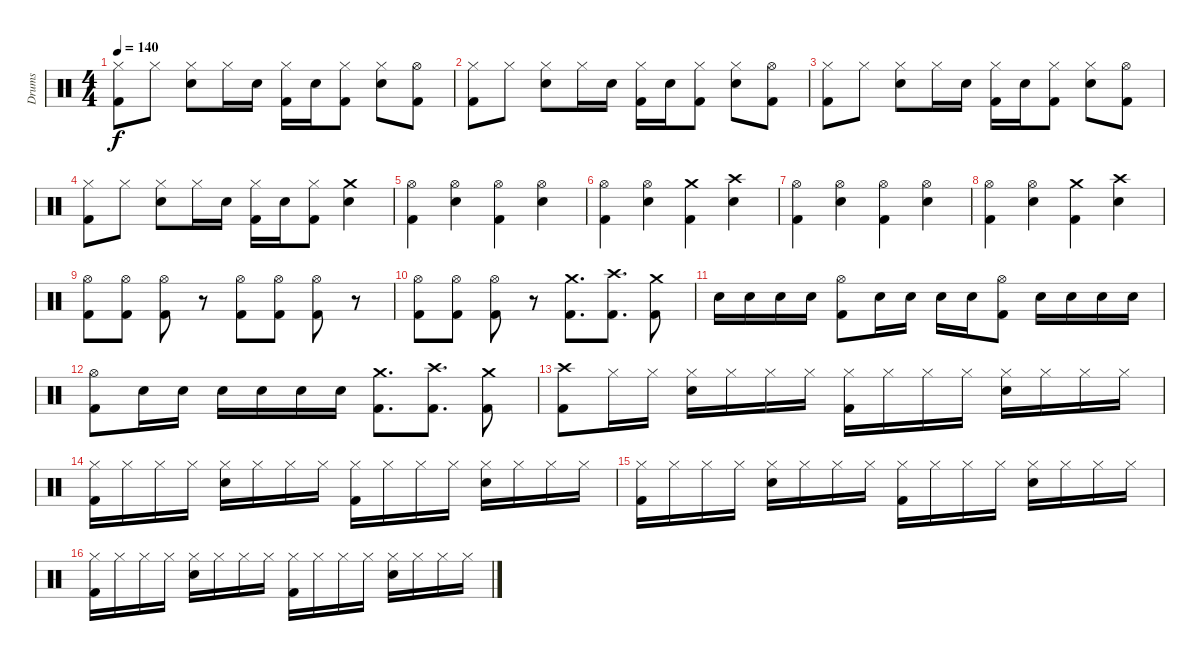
\track ("Drums" "Drums") {instrument percussion}
\staff {score}
\articulation defaults
\ts (4 4)
\tempo 140
\clef neutral
\ks c
("Hi-Hat (closed)" "Kick (hit) 2").8{dy f} "Hi-Hat (closed)".8 ("Hi-Hat (closed)" "Electric Snare (hit)").8 "Hi-Hat (closed)".16 "Electric Snare (hit)".16 ("Hi-Hat (closed)" "Kick (hit) 2").16 "Electric Snare (hit)".16 ("Hi-Hat (closed)" "Kick (hit) 2").8 ("Hi-Hat (closed)" "Electric Snare (hit)").8 ("Hi-Hat (open)" "Kick (hit) 2").8 |
("Hi-Hat (closed)" "Kick (hit) 2").8 "Hi-Hat (closed)".8 ("Hi-Hat (closed)" "Electric Snare (hit)").8 "Hi-Hat (closed)".16 "Electric Snare (hit)".16 ("Hi-Hat (closed)" "Kick (hit) 2").16 "Electric Snare (hit)".16 ("Hi-Hat (closed)" "Kick (hit) 2").8 ("Hi-Hat (closed)" "Electric Snare (hit)").8 ("Hi-Hat (open)" "Kick (hit) 2").8 |
("Hi-Hat (closed)" "Kick (hit) 2").8 "Hi-Hat (closed)".8 ("Hi-Hat (closed)" "Electric Snare (hit)").8 "Hi-Hat (closed)".16 "Electric Snare (hit)".16 ("Hi-Hat (closed)" "Kick (hit) 2").16 "Electric Snare (hit)".16 ("Hi-Hat (closed)" "Kick (hit) 2").8 ("Hi-Hat (closed)" "Electric Snare (hit)").8 ("Hi-Hat (open)" "Kick (hit) 2").8 |
("Hi-Hat (closed)" "Kick (hit) 2").8 "Hi-Hat (closed)".8 ("Hi-Hat (closed)" "Electric Snare (hit)").8 "Hi-Hat (closed)".16 "Electric Snare (hit)".16 ("Hi-Hat (closed)" "Kick (hit) 2").16 "Electric Snare (hit)".16 ("Hi-Hat (closed)" "Kick (hit) 2").8 ("Crash medium (hit)" "Electric Snare (hit)").4 |
("Hi-Hat (open)" "Kick (hit) 2").4 ("Hi-Hat (open)" "Electric Snare (hit)").4 ("Hi-Hat (open)" "Kick (hit) 2").4 ("Hi-Hat (open)" "Electric Snare (hit)").4 |
("Hi-Hat (open)" "Kick (hit) 2").4 ("Hi-Hat (open)" "Electric Snare (hit)").4 ("Crash medium (hit)" "Kick (hit) 2").4 ("Crash high (hit)" "Electric Snare (hit)").4 |
("Hi-Hat (open)" "Kick (hit) 2").4 ("Hi-Hat (open)" "Electric Snare (hit)").4 ("Hi-Hat (open)" "Kick (hit) 2").4 ("Hi-Hat (open)" "Electric Snare (hit)").4 |
("Hi-Hat (open)" "Kick (hit) 2").4 ("Hi-Hat (open)" "Electric Snare (hit)").4 ("Crash medium (hit)" "Kick (hit) 2").4 ("Crash high (hit)" "Electric Snare (hit)").4 |
("Hi-Hat (open)" "Kick (hit) 2").8 ("Hi-Hat (open)" "Kick (hit) 2").8 ("Hi-Hat (open)" "Kick (hit) 2").8 r.8 ("Hi-Hat (open)" "Kick (hit) 2").8 ("Hi-Hat (open)" "Kick (hit) 2").8 ("Hi-Hat (open)" "Kick (hit) 2").8 r.8 |
("Hi-Hat (open)" "Kick (hit) 2").8 ("Hi-Hat (open)" "Kick (hit) 2").8 ("Hi-Hat (open)" "Kick (hit) 2").8 r.8 ("Crash medium (hit)" "Kick (hit) 2").8{d} ("Crash high (hit)" "Kick (hit) 2").8{d} ("Crash medium (hit)" "Kick (hit) 2").8 |
"Electric Snare (hit)".16 "Electric Snare (hit)".16 "Electric Snare (hit)".16 "Electric Snare (hit)".16 ("Hi-Hat (open)" "Kick (hit) 2").8 "Electric Snare (hit)".16 "Electric Snare (hit)".16 "Electric Snare (hit)".16 "Electric Snare (hit)".16 ("Hi-Hat (open)" "Kick (hit) 2").8 "Electric Snare (hit)".16 "Electric Snare (hit)".16 "Electric Snare (hit)".16 "Electric Snare (hit)".16 |
("Hi-Hat (open)" "Kick (hit) 2").8 "Electric Snare (hit)".16 "Electric Snare (hit)".16 "Electric Snare (hit)".16 "Electric Snare (hit)".16 "Electric Snare (hit)".16 "Electric Snare (hit)".16 ("Crash medium (hit)" "Kick (hit) 2").8{d} ("Crash high (hit)" "Kick (hit) 2").8{d} ("Crash medium (hit)" "Kick (hit) 2").8 |
("Crash high (hit)" "Kick (hit) 2").8 "Hi-Hat (closed)".16 "Hi-Hat (closed)".16 ("Hi-Hat (closed)" "Electric Snare (hit)").16 "Hi-Hat (closed)".16 "Hi-Hat (closed)".16 "Hi-Hat (closed)".16 ("Hi-Hat (closed)" "Kick (hit) 2").16 "Hi-Hat (closed)".16 "Hi-Hat (closed)".16 "Hi-Hat (closed)".16 ("Hi-Hat (closed)" "Electric Snare (hit)").16 "Hi-Hat (closed)".16 "Hi-Hat (closed)".16 "Hi-Hat (closed)".16 |
("Hi-Hat (closed)" "Kick (hit) 2").16 "Hi-Hat (closed)".16 "Hi-Hat (closed)".16 "Hi-Hat (closed)".16 ("Hi-Hat (closed)" "Electric Snare (hit)").16 "Hi-Hat (closed)".16 "Hi-Hat (closed)".16 "Hi-Hat (closed)".16 ("Hi-Hat (closed)" "Kick (hit) 2").16 "Hi-Hat (closed)".16 "Hi-Hat (closed)".16 "Hi-Hat (closed)".16 ("Hi-Hat (closed)" "Electric Snare (hit)").16 "Hi-Hat (closed)".16 "Hi-Hat (closed)".16 "Hi-Hat (closed)".16 |
("Hi-Hat (closed)" "Kick (hit) 2").16 "Hi-Hat (closed)".16 "Hi-Hat (closed)".16 "Hi-Hat (closed)".16 ("Hi-Hat (closed)" "Electric Snare (hit)").16 "Hi-Hat (closed)".16 "Hi-Hat (closed)".16 "Hi-Hat (closed)".16 ("Hi-Hat (closed)" "Kick (hit) 2").16 "Hi-Hat (closed)".16 "Hi-Hat (closed)".16 "Hi-Hat (closed)".16 ("Hi-Hat (closed)" "Electric Snare (hit)").16 "Hi-Hat (closed)".16 "Hi-Hat (closed)".16 "Hi-Hat (closed)".16 |
("Hi-Hat (closed)" "Kick (hit) 2").16 "Hi-Hat (closed)".16 "Hi-Hat (closed)".16 "Hi-Hat (closed)".16 ("Hi-Hat (closed)" "Electric Snare (hit)").16 "Hi-Hat (closed)".16 "Hi-Hat (closed)".16 "Hi-Hat (closed)".16 ("Hi-Hat (closed)" "Kick (hit) 2").16 "Hi-Hat (closed)".16 "Hi-Hat (closed)".16 "Hi-Hat (closed)".16 ("Hi-Hat (closed)" "Electric Snare (hit)").16 "Hi-Hat (closed)".16 "Hi-Hat (closed)".16 "Hi-Hat (closed)".16
